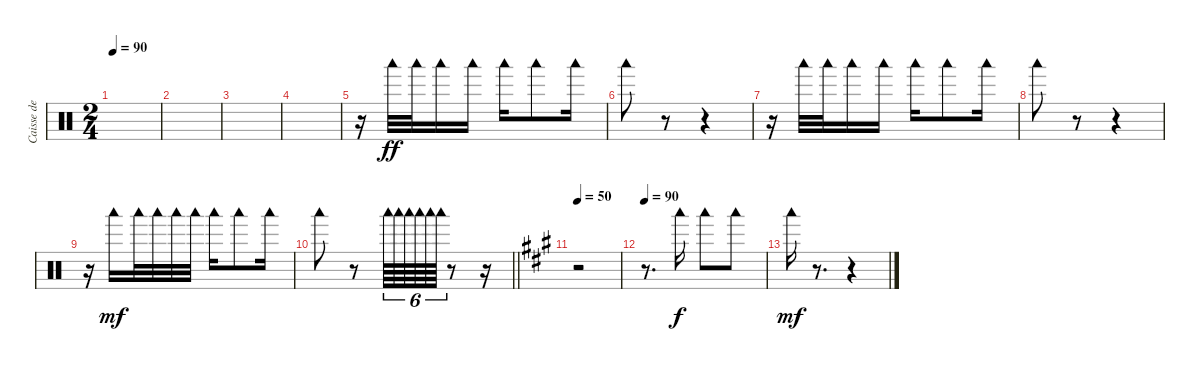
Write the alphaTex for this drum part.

\track ("Caisse de la guitare" "Caisse de ") {instrument percussion}
\staff {score}
\articulation defaults
\ts (2 4)
\tempo 90
\clef neutral
\ks c
|
|
|
|
r.16 "Woodblock low (hit)".32{dy ff} "Woodblock low (hit)".32 "Woodblock low (hit)".16 "Woodblock low (hit)".16 "Woodblock low (hit)".16 "Woodblock low (hit)".8 "Woodblock low (hit)".16 |
"Woodblock low (hit)".8 r.8 r.4 |
r.16 "Woodblock low (hit)".32 "Woodblock low (hit)".32 "Woodblock low (hit)".16 "Woodblock low (hit)".16 "Woodblock low (hit)".16 "Woodblock low (hit)".8 "Woodblock low (hit)".16 |
"Woodblock low (hit)".8 r.8 r.4 |
r.16 "Woodblock low (hit)".16{dy mf} "Woodblock low (hit)".32 "Woodblock low (hit)".32 "Woodblock low (hit)".32 "Woodblock low (hit)".32 "Woodblock low (hit)".16 "Woodblock low (hit)".8 "Woodblock low (hit)".16 |
\barLineRight lightlight "Woodblock low (hit)".8
r.8 "Woodblock low (hit)".64{tu (6 4)} "Woodblock low (hit)".64{tu (6 4)} "Woodblock low (hit)".64{tu (6 4)} "Woodblock low (hit)".64{tu (6 4)} "Woodblock low (hit)".64{tu (6 4)} "Woodblock low (hit)".64{tu (6 4)} r.8 r.16 |
\tempo 50
\ks a
r.2 |
\tempo 90
r.8{d} "Woodblock low (hit)".16{dy f} "Woodblock low (hit)".8 "Woodblock low (hit)".8 |
"Woodblock low (hit)".16{dy mf} r.8{d} r.4
